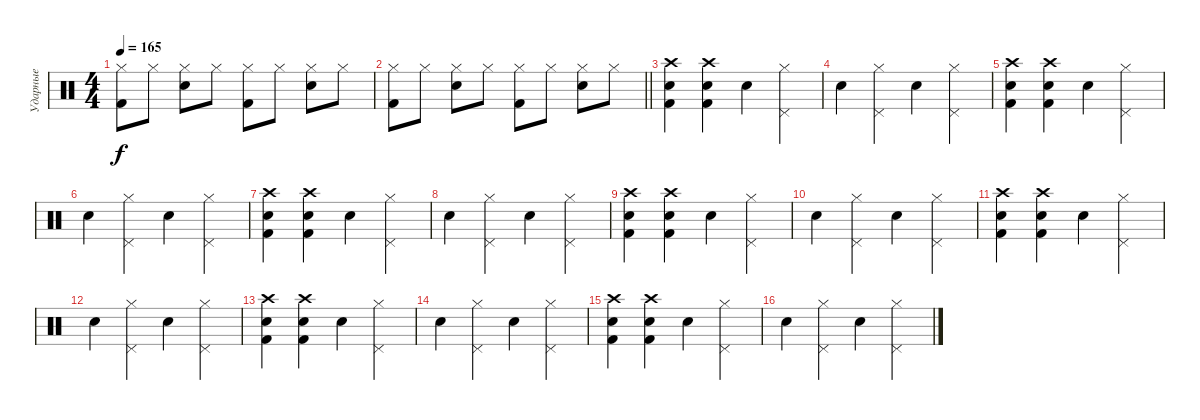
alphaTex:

\track ("Ударные" "Ударные") {instrument percussion}
\staff {score}
\articulation defaults
\ts (4 4)
\tempo 165
\clef neutral
\ks c
("Hi-Hat (closed)" "Kick (hit) 2").8{dy f} "Hi-Hat (closed)".8 ("Hi-Hat (closed)" "Electric Snare (hit)").8 "Hi-Hat (closed)".8 ("Hi-Hat (closed)" "Kick (hit) 2").8 "Hi-Hat (closed)".8 ("Hi-Hat (closed)" "Snare (hit) 2").8 "Hi-Hat (closed)".8 |
\barLineRight lightlight
("Hi-Hat (closed)" "Kick (hit) 2").8 "Hi-Hat (closed)".8 ("Hi-Hat (closed)" "Electric Snare (hit)").8 "Hi-Hat (closed)".8 ("Hi-Hat (closed)" "Kick (hit) 2").8 "Hi-Hat (closed)".8 ("Hi-Hat (closed)" "Snare (hit) 2").8 "Hi-Hat (closed)".8 |
("Kick (hit) 2" "Crash high (hit)" "Snare (hit) 2").4 ("Kick (hit) 2" "Crash high (hit)" "Snare (hit) 2").4 "Snare (hit) 2".4 ("Hi-Hat (closed)" "Pedal Hi-Hat (hit)").4 |
"Electric Snare (hit)".4 ("Hi-Hat (closed)" "Pedal Hi-Hat (hit)").4 "Electric Snare (hit)".4 ("Hi-Hat (closed)" "Pedal Hi-Hat (hit)").4 |
("Kick (hit) 2" "Crash high (hit)" "Snare (hit) 2").4 ("Kick (hit) 2" "Crash high (hit)" "Snare (hit) 2").4 "Snare (hit) 2".4 ("Hi-Hat (closed)" "Pedal Hi-Hat (hit)").4 |
"Electric Snare (hit)".4 ("Hi-Hat (closed)" "Pedal Hi-Hat (hit)").4 "Electric Snare (hit)".4 ("Hi-Hat (closed)" "Pedal Hi-Hat (hit)").4 |
("Kick (hit) 2" "Crash high (hit)" "Snare (hit) 2").4 ("Kick (hit) 2" "Crash high (hit)" "Snare (hit) 2").4 "Snare (hit) 2".4 ("Hi-Hat (closed)" "Pedal Hi-Hat (hit)").4 |
"Electric Snare (hit)".4 ("Hi-Hat (closed)" "Pedal Hi-Hat (hit)").4 "Electric Snare (hit)".4 ("Hi-Hat (closed)" "Pedal Hi-Hat (hit)").4 |
("Kick (hit) 2" "Crash high (hit)" "Snare (hit) 2").4 ("Kick (hit) 2" "Crash high (hit)" "Snare (hit) 2").4 "Snare (hit) 2".4 ("Hi-Hat (closed)" "Pedal Hi-Hat (hit)").4 |
"Electric Snare (hit)".4 ("Hi-Hat (closed)" "Pedal Hi-Hat (hit)").4 "Electric Snare (hit)".4 ("Hi-Hat (closed)" "Pedal Hi-Hat (hit)").4 |
("Kick (hit) 2" "Crash high (hit)" "Snare (hit) 2").4 ("Kick (hit) 2" "Crash high (hit)" "Snare (hit) 2").4 "Snare (hit) 2".4 ("Hi-Hat (closed)" "Pedal Hi-Hat (hit)").4 |
"Electric Snare (hit)".4 ("Hi-Hat (closed)" "Pedal Hi-Hat (hit)").4 "Electric Snare (hit)".4 ("Hi-Hat (closed)" "Pedal Hi-Hat (hit)").4 |
("Kick (hit) 2" "Crash high (hit)" "Snare (hit) 2").4 ("Kick (hit) 2" "Crash high (hit)" "Snare (hit) 2").4 "Snare (hit) 2".4 ("Hi-Hat (closed)" "Pedal Hi-Hat (hit)").4 |
"Electric Snare (hit)".4 ("Hi-Hat (closed)" "Pedal Hi-Hat (hit)").4 "Electric Snare (hit)".4 ("Hi-Hat (closed)" "Pedal Hi-Hat (hit)").4 |
("Kick (hit) 2" "Crash high (hit)" "Snare (hit) 2").4 ("Kick (hit) 2" "Crash high (hit)" "Snare (hit) 2").4 "Snare (hit) 2".4 ("Hi-Hat (closed)" "Pedal Hi-Hat (hit)").4 |
"Electric Snare (hit)".4 ("Hi-Hat (closed)" "Pedal Hi-Hat (hit)").4 "Electric Snare (hit)".4 ("Hi-Hat (closed)" "Pedal Hi-Hat (hit)").4
